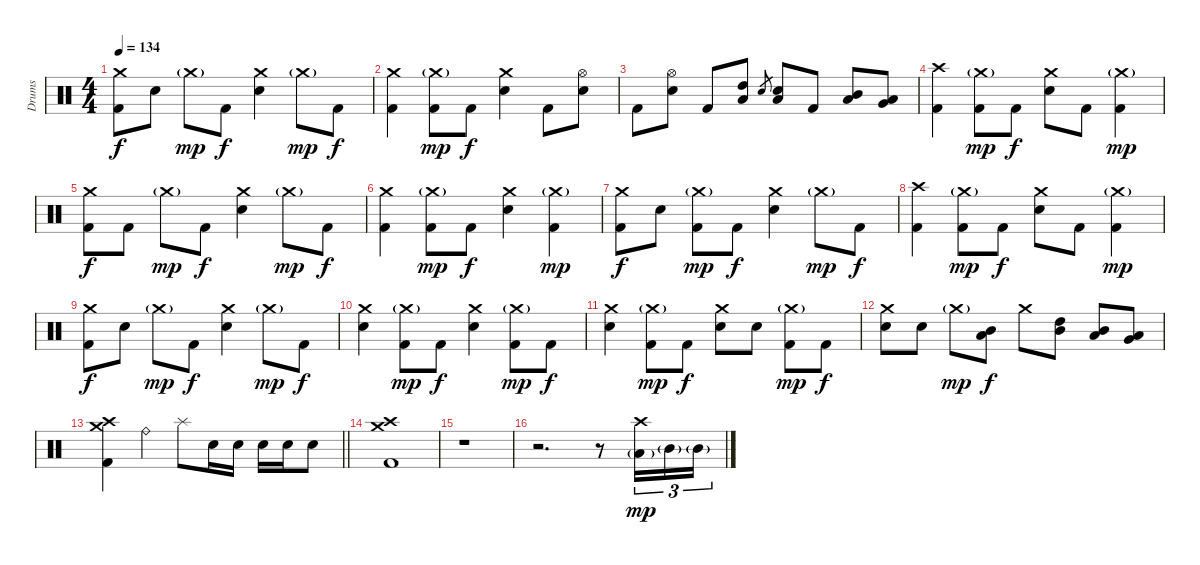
\track ("Drums" "Drums") {instrument percussion}
\staff {score}
\articulation defaults
\ts (4 4)
\tempo 134
\clef neutral
\ks c
("Crash medium (hit)" "Kick (hit) 2").8{dy f} "Electric Snare (hit)".8 "Crash medium (hit)"{g}.8{dy mp} "Kick (hit) 2".8{dy f} ("Crash medium (hit)" "Electric Snare (hit)").4 "Crash medium (hit)"{g}.8{dy mp} "Kick (hit) 2".8{dy f} |
("Crash medium (hit)" "Kick (hit) 2").4 ("Crash medium (hit)"{g} "Kick (hit) 2").8{dy mp} "Kick (hit) 2".8{dy f} ("Crash medium (hit)" "Electric Snare (hit)").4 "Kick (hit) 2".8 ("Hi-Hat (open)" "Electric Snare (hit)").8 |
"Kick (hit) 2".8 ("Hi-Hat (open)" "Electric Snare (hit)").8 "Kick (hit) 2".8 ("High Tom (hit)" "Low Tom (hit)").8 "Electric Snare (hit)".8{gr} ("Low Tom (hit)" "Electric Snare (hit)").8 "Kick (hit) 2".8 ("Mid Tom (hit)" "Low Tom (hit)").8 ("Low Tom (hit)" "Very Low Tom (hit)").8 |
("Crash high (hit)" "Kick (hit) 2").4 ("Crash medium (hit)"{g} "Kick (hit) 2").8{dy mp} "Kick (hit) 2".8{dy f} ("Crash medium (hit)" "Electric Snare (hit)").8 "Kick (hit) 2".8 ("Crash medium (hit)"{g} "Kick (hit) 2").4{dy mp} |
("Crash medium (hit)" "Kick (hit) 2").8{dy f} "Kick (hit) 2".8 "Crash medium (hit)"{g}.8{dy mp} "Kick (hit) 2".8{dy f} ("Crash medium (hit)" "Electric Snare (hit)").4 "Crash medium (hit)"{g}.8{dy mp} "Kick (hit) 2".8{dy f} |
("Crash medium (hit)" "Kick (hit) 2").4 ("Crash medium (hit)"{g} "Kick (hit) 2").8{dy mp} "Kick (hit) 2".8{dy f} ("Crash medium (hit)" "Electric Snare (hit)").4 ("Crash medium (hit)"{g} "Kick (hit) 2").4{dy mp} |
("Crash medium (hit)" "Kick (hit) 2").8{dy f} "Electric Snare (hit)".8 ("Crash medium (hit)"{g} "Kick (hit) 2").8{dy mp} "Kick (hit) 2".8{dy f} ("Crash medium (hit)" "Electric Snare (hit)").4 "Crash medium (hit)"{g}.8{dy mp} "Kick (hit) 2".8{dy f} |
("Crash high (hit)" "Kick (hit) 2").4 ("Crash medium (hit)"{g} "Kick (hit) 2").8{dy mp} "Kick (hit) 2".8{dy f} ("Crash medium (hit)" "Electric Snare (hit)").8 "Kick (hit) 2".8 ("Crash medium (hit)"{g} "Kick (hit) 2").4{dy mp} |
("Crash medium (hit)" "Kick (hit) 2").8{dy f} "Electric Snare (hit)".8 "Crash medium (hit)"{g}.8{dy mp} "Kick (hit) 2".8{dy f} ("Crash medium (hit)" "Electric Snare (hit)").4 "Crash medium (hit)"{g}.8{dy mp} "Kick (hit) 2".8{dy f} |
("Crash medium (hit)" "Electric Snare (hit)").4 ("Crash medium (hit)"{g} "Kick (hit) 2").8{dy mp} "Kick (hit) 2".8{dy f} ("Crash medium (hit)" "Electric Snare (hit)").4 ("Crash medium (hit)"{g} "Kick (hit) 2").8{dy mp} "Kick (hit) 2".8{dy f} |
("Crash medium (hit)" "Electric Snare (hit)").4 ("Crash medium (hit)"{g} "Kick (hit) 2").8{dy mp} "Kick (hit) 2".8{dy f} ("Crash medium (hit)" "Electric Snare (hit)").8 "Electric Snare (hit)".8 ("Crash medium (hit)"{g} "Kick (hit) 2").8{dy mp} "Kick (hit) 2".8{dy f} |
("Crash medium (hit)" "Electric Snare (hit)").8 "Electric Snare (hit)".8 "Crash medium (hit)"{g}.8{dy mp} ("Mid Tom (hit)" "Low Tom (hit)").8{dy f} "Crash medium (hit)".8 ("High Tom (hit)" "Mid Tom (hit)").8 ("Mid Tom (hit)" "Low Tom (hit)").8 ("Low Tom (hit)" "Very Low Tom (hit)").8 |
\barLineRight lightlight
("Crash high (hit)" "Crash medium (hit)" "Kick (hit) 2").4 "Ride (bell)".4 "Splash (hit)".8 "Electric Snare (hit)".16 "Electric Snare (hit)".16 "Electric Snare (hit)".16 "Electric Snare (hit)".16 "Electric Snare (hit)".8 |
("Crash high (hit)" "Crash medium (hit)" "Kick (hit) 2").1 |
r.1 |
r.2{d} r.8 ("Crash high (hit)" "Low Tom (hit)"{g}).16{tu (3 2) dy mp} "Mid Tom (hit)"{g}.16{tu (3 2)} "Mid Tom (hit)"{g}.16{tu (3 2)}
